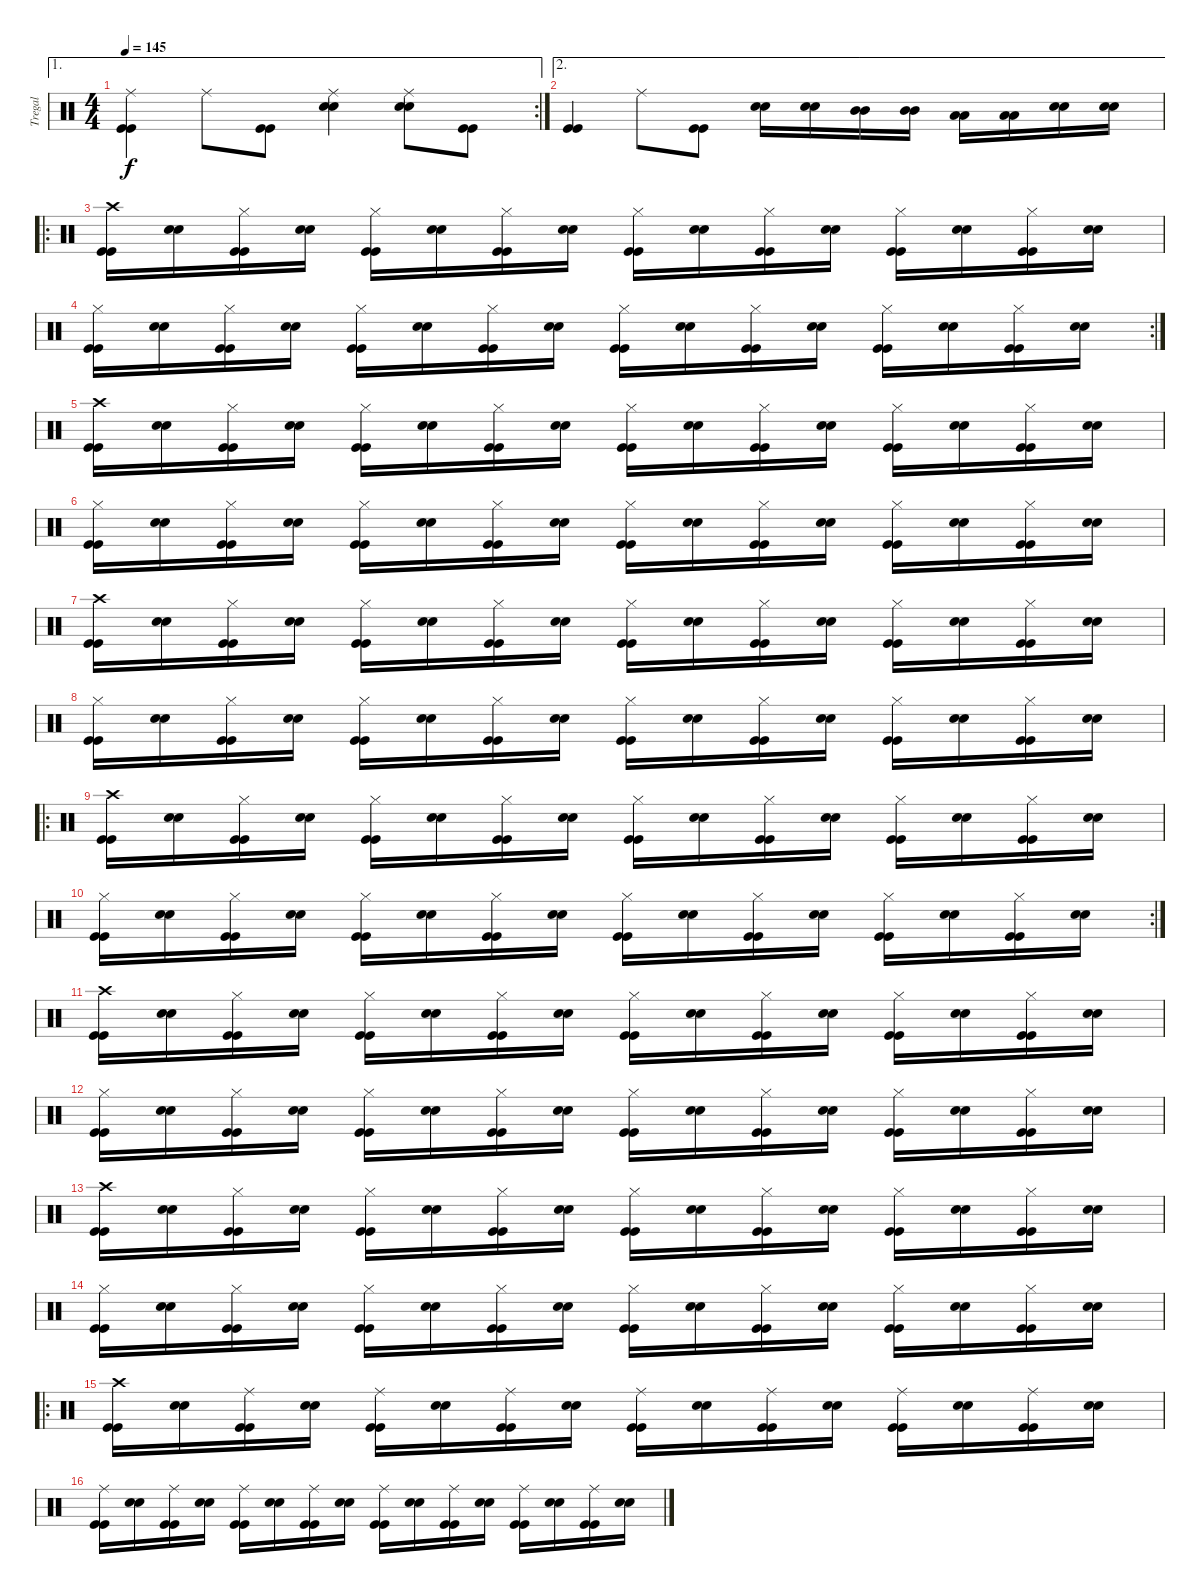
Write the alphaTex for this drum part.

\track ("Tregal" "Tregal") {instrument percussion}
\staff {score}
\articulation defaults
\ae 1
\rc 2
\ts (4 4)
\tempo 145
\clef neutral
\ks c
("Kick (hit)" "Kick (hit)" "Ride (middle)").4{dy f} "Ride (middle)".8 ("Kick (hit)" "Kick (hit)").8 ("Ride (middle)" "Snare (hit) 2" "Snare (hit) 2").4 ("Ride (middle)" "Snare (hit) 2" "Snare (hit) 2").8 ("Kick (hit)" "Kick (hit)").8 |
\ae 2
("Kick (hit)" "Kick (hit)").4 "Ride (middle)".8 ("Kick (hit)" "Kick (hit)").8 ("Snare (hit) 2" "Snare (hit) 2").16 ("Snare (hit) 2" "Snare (hit) 2").16 ("Mid Tom (hit)" "Mid Tom (hit)").16 ("Mid Tom (hit)" "Mid Tom (hit)").16 ("Low Tom (hit)" "Low Tom (hit)").16 ("Low Tom (hit)" "Low Tom (hit)").16 ("Snare (hit) 2" "Snare (hit) 2").16 ("Snare (hit) 2" "Snare (hit) 2").16 |
\ro
("Kick (hit)" "Kick (hit)" "Crash high (hit)").16 ("Snare (hit) 2" "Snare (hit) 2").16 ("Kick (hit)" "Kick (hit)" "Hi-Hat (closed)").16 ("Snare (hit) 2" "Snare (hit) 2").16 ("Kick (hit)" "Kick (hit)" "Hi-Hat (closed)").16 ("Snare (hit) 2" "Snare (hit) 2").16 ("Kick (hit)" "Kick (hit)" "Hi-Hat (closed)").16 ("Snare (hit) 2" "Snare (hit) 2").16 ("Kick (hit)" "Kick (hit)" "Hi-Hat (closed)").16 ("Snare (hit) 2" "Snare (hit) 2").16 ("Kick (hit)" "Kick (hit)" "Hi-Hat (closed)").16 ("Snare (hit) 2" "Snare (hit) 2").16 ("Kick (hit)" "Kick (hit)" "Hi-Hat (closed)").16 ("Snare (hit) 2" "Snare (hit) 2").16 ("Kick (hit)" "Kick (hit)" "Hi-Hat (closed)").16 ("Snare (hit) 2" "Snare (hit) 2").16 |
\rc 2
("Kick (hit)" "Kick (hit)" "Hi-Hat (closed)").16 ("Snare (hit) 2" "Snare (hit) 2").16 ("Kick (hit)" "Kick (hit)" "Hi-Hat (closed)").16 ("Snare (hit) 2" "Snare (hit) 2").16 ("Kick (hit)" "Kick (hit)" "Hi-Hat (closed)").16 ("Snare (hit) 2" "Snare (hit) 2").16 ("Kick (hit)" "Kick (hit)" "Hi-Hat (closed)").16 ("Snare (hit) 2" "Snare (hit) 2").16 ("Kick (hit)" "Kick (hit)" "Hi-Hat (closed)").16 ("Snare (hit) 2" "Snare (hit) 2").16 ("Kick (hit)" "Kick (hit)" "Hi-Hat (closed)").16 ("Snare (hit) 2" "Snare (hit) 2").16 ("Kick (hit)" "Kick (hit)" "Hi-Hat (closed)").16 ("Snare (hit) 2" "Snare (hit) 2").16 ("Kick (hit)" "Kick (hit)" "Hi-Hat (closed)").16 ("Snare (hit) 2" "Snare (hit) 2").16 |
("Kick (hit)" "Kick (hit)" "Crash high (hit)").16 ("Snare (hit) 2" "Snare (hit) 2").16 ("Kick (hit)" "Kick (hit)" "Hi-Hat (closed)").16 ("Snare (hit) 2" "Snare (hit) 2").16 ("Kick (hit)" "Kick (hit)" "Hi-Hat (closed)").16 ("Snare (hit) 2" "Snare (hit) 2").16 ("Kick (hit)" "Kick (hit)" "Hi-Hat (closed)").16 ("Snare (hit) 2" "Snare (hit) 2").16 ("Kick (hit)" "Kick (hit)" "Hi-Hat (closed)").16 ("Snare (hit) 2" "Snare (hit) 2").16 ("Kick (hit)" "Kick (hit)" "Hi-Hat (closed)").16 ("Snare (hit) 2" "Snare (hit) 2").16 ("Kick (hit)" "Kick (hit)" "Hi-Hat (closed)").16 ("Snare (hit) 2" "Snare (hit) 2").16 ("Kick (hit)" "Kick (hit)" "Hi-Hat (closed)").16 ("Snare (hit) 2" "Snare (hit) 2").16 |
("Kick (hit)" "Kick (hit)" "Hi-Hat (closed)").16 ("Snare (hit) 2" "Snare (hit) 2").16 ("Kick (hit)" "Kick (hit)" "Hi-Hat (closed)").16 ("Snare (hit) 2" "Snare (hit) 2").16 ("Kick (hit)" "Kick (hit)" "Hi-Hat (closed)").16 ("Snare (hit) 2" "Snare (hit) 2").16 ("Kick (hit)" "Kick (hit)" "Hi-Hat (closed)").16 ("Snare (hit) 2" "Snare (hit) 2").16 ("Kick (hit)" "Kick (hit)" "Hi-Hat (closed)").16 ("Snare (hit) 2" "Snare (hit) 2").16 ("Kick (hit)" "Kick (hit)" "Hi-Hat (closed)").16 ("Snare (hit) 2" "Snare (hit) 2").16 ("Kick (hit)" "Kick (hit)" "Hi-Hat (closed)").16 ("Snare (hit) 2" "Snare (hit) 2").16 ("Kick (hit)" "Kick (hit)" "Hi-Hat (closed)").16 ("Snare (hit) 2" "Snare (hit) 2").16 |
("Kick (hit)" "Kick (hit)" "Crash high (hit)").16 ("Snare (hit) 2" "Snare (hit) 2").16 ("Kick (hit)" "Kick (hit)" "Hi-Hat (closed)").16 ("Snare (hit) 2" "Snare (hit) 2").16 ("Kick (hit)" "Kick (hit)" "Hi-Hat (closed)").16 ("Snare (hit) 2" "Snare (hit) 2").16 ("Kick (hit)" "Kick (hit)" "Hi-Hat (closed)").16 ("Snare (hit) 2" "Snare (hit) 2").16 ("Kick (hit)" "Kick (hit)" "Hi-Hat (closed)").16 ("Snare (hit) 2" "Snare (hit) 2").16 ("Kick (hit)" "Kick (hit)" "Hi-Hat (closed)").16 ("Snare (hit) 2" "Snare (hit) 2").16 ("Kick (hit)" "Kick (hit)" "Hi-Hat (closed)").16 ("Snare (hit) 2" "Snare (hit) 2").16 ("Kick (hit)" "Kick (hit)" "Hi-Hat (closed)").16 ("Snare (hit) 2" "Snare (hit) 2").16 |
("Kick (hit)" "Kick (hit)" "Hi-Hat (closed)").16 ("Snare (hit) 2" "Snare (hit) 2").16 ("Kick (hit)" "Kick (hit)" "Hi-Hat (closed)").16 ("Snare (hit) 2" "Snare (hit) 2").16 ("Kick (hit)" "Kick (hit)" "Hi-Hat (closed)").16 ("Snare (hit) 2" "Snare (hit) 2").16 ("Kick (hit)" "Kick (hit)" "Hi-Hat (closed)").16 ("Snare (hit) 2" "Snare (hit) 2").16 ("Kick (hit)" "Kick (hit)" "Hi-Hat (closed)").16 ("Snare (hit) 2" "Snare (hit) 2").16 ("Kick (hit)" "Kick (hit)" "Hi-Hat (closed)").16 ("Snare (hit) 2" "Snare (hit) 2").16 ("Kick (hit)" "Kick (hit)" "Hi-Hat (closed)").16 ("Snare (hit) 2" "Snare (hit) 2").16 ("Kick (hit)" "Kick (hit)" "Hi-Hat (closed)").16 ("Snare (hit) 2" "Snare (hit) 2").16 |
\ro
("Kick (hit)" "Kick (hit)" "Crash high (hit)").16 ("Snare (hit) 2" "Snare (hit) 2").16 ("Kick (hit)" "Kick (hit)" "Hi-Hat (closed)").16 ("Snare (hit) 2" "Snare (hit) 2").16 ("Kick (hit)" "Kick (hit)" "Hi-Hat (closed)").16 ("Snare (hit) 2" "Snare (hit) 2").16 ("Kick (hit)" "Kick (hit)" "Hi-Hat (closed)").16 ("Snare (hit) 2" "Snare (hit) 2").16 ("Kick (hit)" "Kick (hit)" "Hi-Hat (closed)").16 ("Snare (hit) 2" "Snare (hit) 2").16 ("Kick (hit)" "Kick (hit)" "Hi-Hat (closed)").16 ("Snare (hit) 2" "Snare (hit) 2").16 ("Kick (hit)" "Kick (hit)" "Hi-Hat (closed)").16 ("Snare (hit) 2" "Snare (hit) 2").16 ("Kick (hit)" "Kick (hit)" "Hi-Hat (closed)").16 ("Snare (hit) 2" "Snare (hit) 2").16 |
\rc 2
("Kick (hit)" "Kick (hit)" "Hi-Hat (closed)").16 ("Snare (hit) 2" "Snare (hit) 2").16 ("Kick (hit)" "Kick (hit)" "Hi-Hat (closed)").16 ("Snare (hit) 2" "Snare (hit) 2").16 ("Kick (hit)" "Kick (hit)" "Hi-Hat (closed)").16 ("Snare (hit) 2" "Snare (hit) 2").16 ("Kick (hit)" "Kick (hit)" "Hi-Hat (closed)").16 ("Snare (hit) 2" "Snare (hit) 2").16 ("Kick (hit)" "Kick (hit)" "Hi-Hat (closed)").16 ("Snare (hit) 2" "Snare (hit) 2").16 ("Kick (hit)" "Kick (hit)" "Hi-Hat (closed)").16 ("Snare (hit) 2" "Snare (hit) 2").16 ("Kick (hit)" "Kick (hit)" "Hi-Hat (closed)").16 ("Snare (hit) 2" "Snare (hit) 2").16 ("Kick (hit)" "Kick (hit)" "Hi-Hat (closed)").16 ("Snare (hit) 2" "Snare (hit) 2").16 |
("Kick (hit)" "Kick (hit)" "Crash high (hit)").16 ("Snare (hit) 2" "Snare (hit) 2").16 ("Kick (hit)" "Kick (hit)" "Hi-Hat (closed)").16 ("Snare (hit) 2" "Snare (hit) 2").16 ("Kick (hit)" "Kick (hit)" "Hi-Hat (closed)").16 ("Snare (hit) 2" "Snare (hit) 2").16 ("Kick (hit)" "Kick (hit)" "Hi-Hat (closed)").16 ("Snare (hit) 2" "Snare (hit) 2").16 ("Kick (hit)" "Kick (hit)" "Hi-Hat (closed)").16 ("Snare (hit) 2" "Snare (hit) 2").16 ("Kick (hit)" "Kick (hit)" "Hi-Hat (closed)").16 ("Snare (hit) 2" "Snare (hit) 2").16 ("Kick (hit)" "Kick (hit)" "Hi-Hat (closed)").16 ("Snare (hit) 2" "Snare (hit) 2").16 ("Kick (hit)" "Kick (hit)" "Hi-Hat (closed)").16 ("Snare (hit) 2" "Snare (hit) 2").16 |
("Kick (hit)" "Kick (hit)" "Hi-Hat (closed)").16 ("Snare (hit) 2" "Snare (hit) 2").16 ("Kick (hit)" "Kick (hit)" "Hi-Hat (closed)").16 ("Snare (hit) 2" "Snare (hit) 2").16 ("Kick (hit)" "Kick (hit)" "Hi-Hat (closed)").16 ("Snare (hit) 2" "Snare (hit) 2").16 ("Kick (hit)" "Kick (hit)" "Hi-Hat (closed)").16 ("Snare (hit) 2" "Snare (hit) 2").16 ("Kick (hit)" "Kick (hit)" "Hi-Hat (closed)").16 ("Snare (hit) 2" "Snare (hit) 2").16 ("Kick (hit)" "Kick (hit)" "Hi-Hat (closed)").16 ("Snare (hit) 2" "Snare (hit) 2").16 ("Kick (hit)" "Kick (hit)" "Hi-Hat (closed)").16 ("Snare (hit) 2" "Snare (hit) 2").16 ("Kick (hit)" "Kick (hit)" "Hi-Hat (closed)").16 ("Snare (hit) 2" "Snare (hit) 2").16 |
("Kick (hit)" "Kick (hit)" "Crash high (hit)").16 ("Snare (hit) 2" "Snare (hit) 2").16 ("Kick (hit)" "Kick (hit)" "Hi-Hat (closed)").16 ("Snare (hit) 2" "Snare (hit) 2").16 ("Kick (hit)" "Kick (hit)" "Hi-Hat (closed)").16 ("Snare (hit) 2" "Snare (hit) 2").16 ("Kick (hit)" "Kick (hit)" "Hi-Hat (closed)").16 ("Snare (hit) 2" "Snare (hit) 2").16 ("Kick (hit)" "Kick (hit)" "Hi-Hat (closed)").16 ("Snare (hit) 2" "Snare (hit) 2").16 ("Kick (hit)" "Kick (hit)" "Hi-Hat (closed)").16 ("Snare (hit) 2" "Snare (hit) 2").16 ("Kick (hit)" "Kick (hit)" "Hi-Hat (closed)").16 ("Snare (hit) 2" "Snare (hit) 2").16 ("Kick (hit)" "Kick (hit)" "Hi-Hat (closed)").16 ("Snare (hit) 2" "Snare (hit) 2").16 |
("Kick (hit)" "Kick (hit)" "Hi-Hat (closed)").16 ("Snare (hit) 2" "Snare (hit) 2").16 ("Kick (hit)" "Kick (hit)" "Hi-Hat (closed)").16 ("Snare (hit) 2" "Snare (hit) 2").16 ("Kick (hit)" "Kick (hit)" "Hi-Hat (closed)").16 ("Snare (hit) 2" "Snare (hit) 2").16 ("Kick (hit)" "Kick (hit)" "Hi-Hat (closed)").16 ("Snare (hit) 2" "Snare (hit) 2").16 ("Kick (hit)" "Kick (hit)" "Hi-Hat (closed)").16 ("Snare (hit) 2" "Snare (hit) 2").16 ("Kick (hit)" "Kick (hit)" "Hi-Hat (closed)").16 ("Snare (hit) 2" "Snare (hit) 2").16 ("Kick (hit)" "Kick (hit)" "Hi-Hat (closed)").16 ("Snare (hit) 2" "Snare (hit) 2").16 ("Kick (hit)" "Kick (hit)" "Hi-Hat (closed)").16 ("Snare (hit) 2" "Snare (hit) 2").16 |
\ro
("Kick (hit)" "Kick (hit)" "Crash high (hit)").16 ("Snare (hit) 2" "Snare (hit) 2").16 ("Kick (hit)" "Kick (hit)" "Ride (middle)").16 ("Snare (hit) 2" "Snare (hit) 2").16 ("Kick (hit)" "Kick (hit)" "Ride (middle)").16 ("Snare (hit) 2" "Snare (hit) 2").16 ("Kick (hit)" "Kick (hit)" "Ride (middle)").16 ("Snare (hit) 2" "Snare (hit) 2").16 ("Kick (hit)" "Kick (hit)" "Ride (middle)").16 ("Snare (hit) 2" "Snare (hit) 2").16 ("Kick (hit)" "Kick (hit)" "Ride (middle)").16 ("Snare (hit) 2" "Snare (hit) 2").16 ("Kick (hit)" "Kick (hit)" "Ride (middle)").16 ("Snare (hit) 2" "Snare (hit) 2").16 ("Kick (hit)" "Kick (hit)" "Ride (middle)").16 ("Snare (hit) 2" "Snare (hit) 2").16 |
("Kick (hit)" "Kick (hit)" "Ride (middle)").16 ("Snare (hit) 2" "Snare (hit) 2").16 ("Kick (hit)" "Kick (hit)" "Ride (middle)").16 ("Snare (hit) 2" "Snare (hit) 2").16 ("Kick (hit)" "Kick (hit)" "Ride (middle)").16 ("Snare (hit) 2" "Snare (hit) 2").16 ("Kick (hit)" "Kick (hit)" "Ride (middle)").16 ("Snare (hit) 2" "Snare (hit) 2").16 ("Kick (hit)" "Kick (hit)" "Ride (middle)").16 ("Snare (hit) 2" "Snare (hit) 2").16 ("Kick (hit)" "Kick (hit)" "Ride (middle)").16 ("Snare (hit) 2" "Snare (hit) 2").16 ("Kick (hit)" "Kick (hit)" "Ride (middle)").16 ("Snare (hit) 2" "Snare (hit) 2").16 ("Kick (hit)" "Kick (hit)" "Ride (middle)").16 ("Snare (hit) 2" "Snare (hit) 2").16
